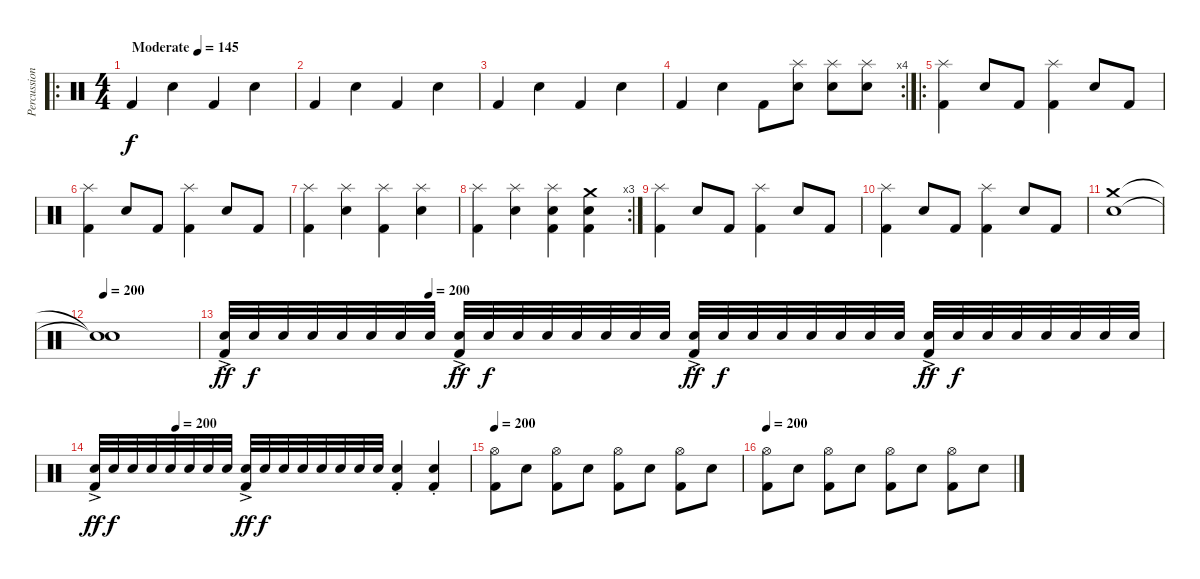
\track ("Percussion" "Percussion") {instrument percussion}
\staff {score}
\articulation defaults
\ro
\ts (4 4)
\tempo (145 "Moderate")
\clef neutral
\ks c "Kick (hit) 2".4{dy f} "Electric Snare (hit)".4 "Kick (hit) 2".4 "Electric Snare (hit)".4
|
"Kick (hit) 2".4 "Electric Snare (hit)".4 "Kick (hit) 2".4 "Electric Snare (hit)".4 |
"Kick (hit) 2".4 "Electric Snare (hit)".4 "Kick (hit) 2".4 "Electric Snare (hit)".4 |
\rc 4 "Kick (hit) 2".4 "Electric Snare (hit)".4 "Kick (hit) 2".8
("Splash (hit)" "Electric Snare (hit)").8 ("Splash (hit)" "Electric Snare (hit)").8 ("Splash (hit)" "Electric Snare (hit)").8 |
\ro
("Splash (hit)" "Kick (hit) 2").4 "Electric Snare (hit)".8 "Kick (hit) 2".8 ("Splash (hit)" "Kick (hit) 2").4 "Electric Snare (hit)".8 "Kick (hit) 2".8 |
("Splash (hit)" "Kick (hit) 2").4 "Electric Snare (hit)".8 "Kick (hit) 2".8 ("Splash (hit)" "Kick (hit) 2").4 "Electric Snare (hit)".8 "Kick (hit) 2".8 |
("Splash (hit)" "Kick (hit) 2").4 ("Splash (hit)" "Electric Snare (hit)").4 ("Splash (hit)" "Kick (hit) 2").4 ("Splash (hit)" "Electric Snare (hit)").4 |
\rc 3
("Splash (hit)" "Kick (hit) 2").4 ("Splash (hit)" "Electric Snare (hit)").4 ("Splash (hit)" "Electric Snare (hit)" "Kick (hit) 2").4 ("Crash medium (hit)" "Electric Snare (hit)" "Kick (hit) 2").4 |
("Splash (hit)" "Kick (hit) 2").4 "Electric Snare (hit)".8 "Kick (hit) 2".8 ("Splash (hit)" "Kick (hit) 2").4 "Electric Snare (hit)".8 "Kick (hit) 2".8 |
("Splash (hit)" "Kick (hit) 2").4 "Electric Snare (hit)".8 "Kick (hit) 2".8 ("Splash (hit)" "Kick (hit) 2").4 "Electric Snare (hit)".8 "Kick (hit) 2".8 |
("Crash medium (hit)" "Electric Snare (hit)").1 |
\tempo 200
("Snare (hit)"{t} "Snare (hit)"{t}).1 |
\tempo (200 0.21875)
("Electric Snare (hit)" "Kick (hit) 2"{ac}).32{dy ff} "Electric Snare (hit)".32{dy f} "Electric Snare (hit)".32 "Electric Snare (hit)".32 "Electric Snare (hit)".32 "Electric Snare (hit)".32 "Electric Snare (hit)".32 "Electric Snare (hit)".32 ("Electric Snare (hit)" "Kick (hit) 2"{ac}).32{dy ff} "Electric Snare (hit)".32{dy f} "Electric Snare (hit)".32 "Electric Snare (hit)".32 "Electric Snare (hit)".32 "Electric Snare (hit)".32 "Electric Snare (hit)".32 "Electric Snare (hit)".32 ("Electric Snare (hit)" "Kick (hit) 2"{ac}).32{dy ff} "Electric Snare (hit)".32{dy f} "Electric Snare (hit)".32 "Electric Snare (hit)".32 "Electric Snare (hit)".32 "Electric Snare (hit)".32 "Electric Snare (hit)".32 "Electric Snare (hit)".32 ("Electric Snare (hit)" "Kick (hit) 2"{ac}).32{dy ff} "Electric Snare (hit)".32{dy f} "Electric Snare (hit)".32 "Electric Snare (hit)".32 "Electric Snare (hit)".32 "Electric Snare (hit)".32 "Electric Snare (hit)".32 "Electric Snare (hit)".32 |
\tempo (200 0.21875)
("Electric Snare (hit)" "Kick (hit) 2"{ac}).32{dy ff} "Electric Snare (hit)".32{dy f} "Electric Snare (hit)".32 "Electric Snare (hit)".32 "Electric Snare (hit)".32 "Electric Snare (hit)".32 "Electric Snare (hit)".32 "Electric Snare (hit)".32 ("Electric Snare (hit)" "Kick (hit) 2"{ac}).32{dy ff} "Electric Snare (hit)".32{dy f} "Electric Snare (hit)".32 "Electric Snare (hit)".32 "Electric Snare (hit)".32 "Electric Snare (hit)".32 "Electric Snare (hit)".32 "Electric Snare (hit)".32 ("Electric Snare (hit)"{st} "Kick (hit) 2").4 ("Electric Snare (hit)"{st} "Kick (hit) 2").4 |
\tempo 200
("Hi-Hat (open)" "Kick (hit) 2").8 "Electric Snare (hit)".8 ("Hi-Hat (open)" "Kick (hit) 2").8 "Electric Snare (hit)".8 ("Hi-Hat (open)" "Kick (hit) 2").8 "Electric Snare (hit)".8 ("Hi-Hat (open)" "Kick (hit) 2").8 "Electric Snare (hit)".8 |
\tempo 200
("Hi-Hat (open)" "Kick (hit) 2").8 "Electric Snare (hit)".8 ("Hi-Hat (open)" "Kick (hit) 2").8 "Electric Snare (hit)".8 ("Hi-Hat (open)" "Kick (hit) 2").8 "Electric Snare (hit)".8 ("Hi-Hat (open)" "Kick (hit) 2").8 "Electric Snare (hit)".8
